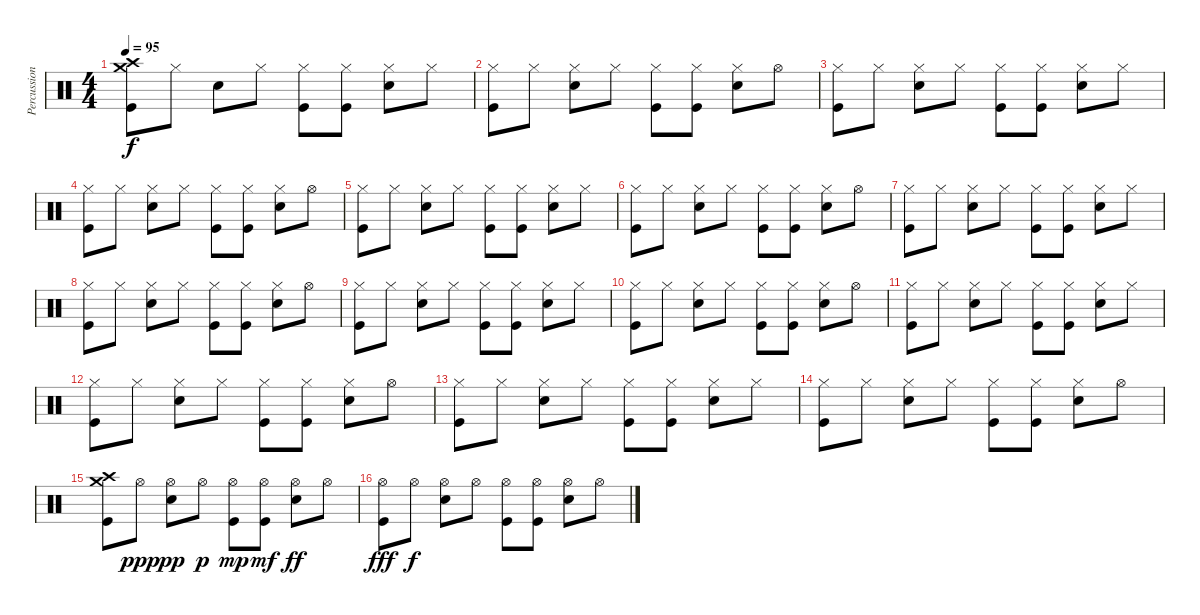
\track ("Percussion" "Percussion") {instrument percussion}
\staff {score}
\articulation defaults
\ts (4 4)
\tempo 95
\clef neutral
\ks c
("Crash high (hit)" "Crash medium (hit)" "Kick (hit)").8{dy f} "Hi-Hat (closed)".8 "Electric Snare (hit)".8 "Hi-Hat (closed)".8 ("Hi-Hat (closed)" "Kick (hit)").8 ("Hi-Hat (closed)" "Kick (hit)").8 ("Hi-Hat (closed)" "Electric Snare (hit)").8 "Hi-Hat (closed)".8 |
("Hi-Hat (closed)" "Kick (hit)").8 "Hi-Hat (closed)".8 ("Hi-Hat (closed)" "Electric Snare (hit)").8 "Hi-Hat (closed)".8 ("Hi-Hat (closed)" "Kick (hit)").8 ("Hi-Hat (closed)" "Kick (hit)").8 ("Hi-Hat (closed)" "Electric Snare (hit)").8 "Hi-Hat (open)".8 |
("Hi-Hat (closed)" "Kick (hit)").8 "Hi-Hat (closed)".8 ("Hi-Hat (closed)" "Electric Snare (hit)").8 "Hi-Hat (closed)".8 ("Hi-Hat (closed)" "Kick (hit)").8 ("Hi-Hat (closed)" "Kick (hit)").8 ("Hi-Hat (closed)" "Electric Snare (hit)").8 "Hi-Hat (closed)".8 |
("Hi-Hat (closed)" "Kick (hit)").8 "Hi-Hat (closed)".8 ("Hi-Hat (closed)" "Electric Snare (hit)").8 "Hi-Hat (closed)".8 ("Hi-Hat (closed)" "Kick (hit)").8 ("Hi-Hat (closed)" "Kick (hit)").8 ("Hi-Hat (closed)" "Electric Snare (hit)").8 "Hi-Hat (open)".8 |
("Hi-Hat (closed)" "Kick (hit)").8 "Hi-Hat (closed)".8 ("Hi-Hat (closed)" "Electric Snare (hit)").8 "Hi-Hat (closed)".8 ("Hi-Hat (closed)" "Kick (hit)").8 ("Hi-Hat (closed)" "Kick (hit)").8 ("Hi-Hat (closed)" "Electric Snare (hit)").8 "Hi-Hat (closed)".8 |
("Hi-Hat (closed)" "Kick (hit)").8 "Hi-Hat (closed)".8 ("Hi-Hat (closed)" "Electric Snare (hit)").8 "Hi-Hat (closed)".8 ("Hi-Hat (closed)" "Kick (hit)").8 ("Hi-Hat (closed)" "Kick (hit)").8 ("Hi-Hat (closed)" "Electric Snare (hit)").8 "Hi-Hat (open)".8 |
("Hi-Hat (closed)" "Kick (hit)").8 "Hi-Hat (closed)".8 ("Hi-Hat (closed)" "Electric Snare (hit)").8 "Hi-Hat (closed)".8 ("Hi-Hat (closed)" "Kick (hit)").8 ("Hi-Hat (closed)" "Kick (hit)").8 ("Hi-Hat (closed)" "Electric Snare (hit)").8 "Hi-Hat (closed)".8 |
("Hi-Hat (closed)" "Kick (hit)").8 "Hi-Hat (closed)".8 ("Hi-Hat (closed)" "Electric Snare (hit)").8 "Hi-Hat (closed)".8 ("Hi-Hat (closed)" "Kick (hit)").8 ("Hi-Hat (closed)" "Kick (hit)").8 ("Hi-Hat (closed)" "Electric Snare (hit)").8 "Hi-Hat (open)".8 |
("Hi-Hat (closed)" "Kick (hit)").8 "Hi-Hat (closed)".8 ("Hi-Hat (closed)" "Electric Snare (hit)").8 "Hi-Hat (closed)".8 ("Hi-Hat (closed)" "Kick (hit)").8 ("Hi-Hat (closed)" "Kick (hit)").8 ("Hi-Hat (closed)" "Electric Snare (hit)").8 "Hi-Hat (closed)".8 |
("Hi-Hat (closed)" "Kick (hit)").8 "Hi-Hat (closed)".8 ("Hi-Hat (closed)" "Electric Snare (hit)").8 "Hi-Hat (closed)".8 ("Hi-Hat (closed)" "Kick (hit)").8 ("Hi-Hat (closed)" "Kick (hit)").8 ("Hi-Hat (closed)" "Electric Snare (hit)").8 "Hi-Hat (open)".8 |
("Hi-Hat (closed)" "Kick (hit)").8 "Hi-Hat (closed)".8 ("Hi-Hat (closed)" "Electric Snare (hit)").8 "Hi-Hat (closed)".8 ("Hi-Hat (closed)" "Kick (hit)").8 ("Hi-Hat (closed)" "Kick (hit)").8 ("Hi-Hat (closed)" "Electric Snare (hit)").8 "Hi-Hat (closed)".8 |
("Hi-Hat (closed)" "Kick (hit)").8 "Hi-Hat (closed)".8 ("Hi-Hat (closed)" "Electric Snare (hit)").8 "Hi-Hat (closed)".8 ("Hi-Hat (closed)" "Kick (hit)").8 ("Hi-Hat (closed)" "Kick (hit)").8 ("Hi-Hat (closed)" "Electric Snare (hit)").8 "Hi-Hat (open)".8 |
("Hi-Hat (closed)" "Kick (hit)").8 "Hi-Hat (closed)".8 ("Hi-Hat (closed)" "Electric Snare (hit)").8 "Hi-Hat (closed)".8 ("Hi-Hat (closed)" "Kick (hit)").8 ("Hi-Hat (closed)" "Kick (hit)").8 ("Hi-Hat (closed)" "Electric Snare (hit)").8 "Hi-Hat (closed)".8 |
("Hi-Hat (closed)" "Kick (hit)").8 "Hi-Hat (closed)".8 ("Hi-Hat (closed)" "Electric Snare (hit)").8 "Hi-Hat (closed)".8 ("Hi-Hat (closed)" "Kick (hit)").8 ("Hi-Hat (closed)" "Kick (hit)").8 ("Hi-Hat (closed)" "Electric Snare (hit)").8 "Hi-Hat (open)".8 |
("Crash high (hit)" "Crash medium (hit)" "Kick (hit)").8 "Hi-Hat (open)".8{dy ppp} ("Hi-Hat (open)" "Electric Snare (hit)").8{dy pp} "Hi-Hat (open)".8{dy p} ("Hi-Hat (open)" "Kick (hit)").8{dy mp} ("Hi-Hat (open)" "Kick (hit)").8{dy mf} ("Hi-Hat (open)" "Electric Snare (hit)").8{dy ff} "Hi-Hat (open)".8 |
("Hi-Hat (open)" "Kick (hit)").8{dy fff} "Hi-Hat (open)".8{dy f} ("Hi-Hat (open)" "Electric Snare (hit)").8 "Hi-Hat (open)".8 ("Hi-Hat (open)" "Kick (hit)").8 ("Hi-Hat (open)" "Kick (hit)").8 ("Hi-Hat (open)" "Electric Snare (hit)").8 "Hi-Hat (open)".8
